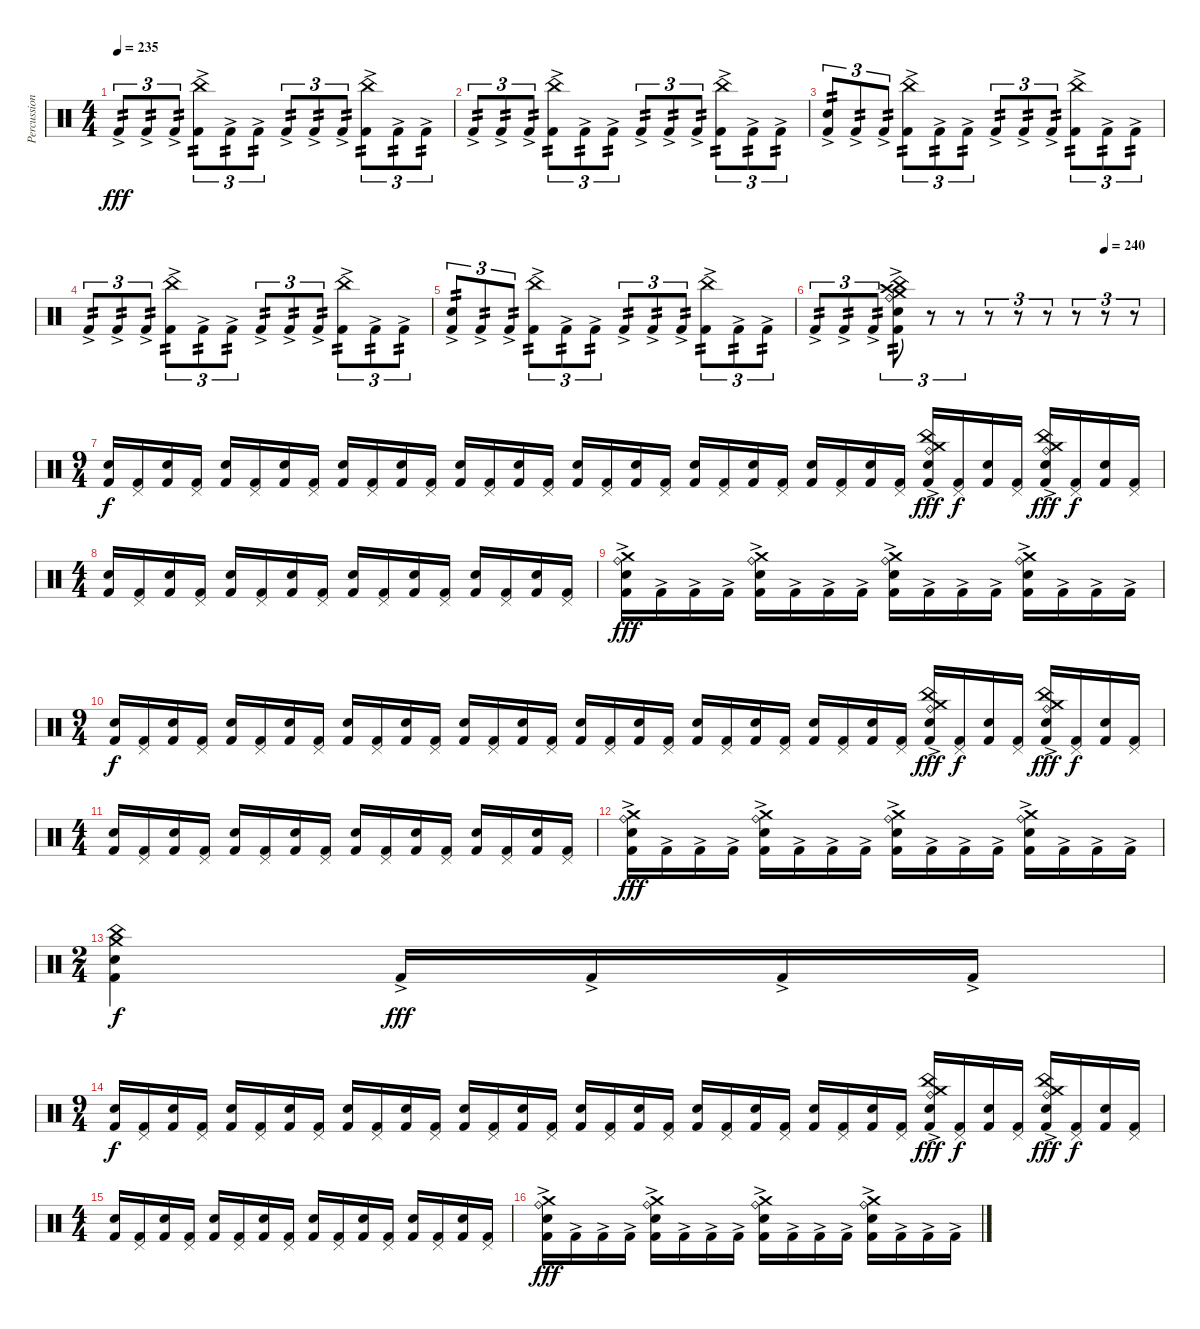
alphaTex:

\track ("Percussions" "Percussion") {instrument percussion}
\staff {score}
\articulation defaults
\ts (4 4)
\tempo 235
\clef neutral
\ks c "Kick (hit) 2"{ac}.8{tu (3 2) tp 2 dy fff} "Kick (hit) 2"{ac}.8{tu (3 2) tp 2} "Kick (hit) 2"{ac}.8{tu (3 2) tp 2}
("China (hit)"{ac} "Kick (hit) 2"{ac}).8{tu (3 2) tp 2} "Kick (hit) 2"{ac}.8{tu (3 2) tp 2} "Kick (hit) 2"{ac}.8{tu (3 2) tp 2} "Kick (hit) 2"{ac}.8{tu (3 2) tp 2} "Kick (hit) 2"{ac}.8{tu (3 2) tp 2} "Kick (hit) 2"{ac}.8{tu (3 2) tp 2} ("China (hit)"{ac} "Kick (hit) 2"{ac}).8{tu (3 2) tp 2} "Kick (hit) 2"{ac}.8{tu (3 2) tp 2} "Kick (hit) 2"{ac}.8{tu (3 2) tp 2} |
"Kick (hit) 2"{ac}.8{tu (3 2) tp 2} "Kick (hit) 2"{ac}.8{tu (3 2) tp 2} "Kick (hit) 2"{ac}.8{tu (3 2) tp 2} ("China (hit)"{ac} "Kick (hit) 2"{ac}).8{tu (3 2) tp 2} "Kick (hit) 2"{ac}.8{tu (3 2) tp 2} "Kick (hit) 2"{ac}.8{tu (3 2) tp 2} "Kick (hit) 2"{ac}.8{tu (3 2) tp 2} "Kick (hit) 2"{ac}.8{tu (3 2) tp 2} "Kick (hit) 2"{ac}.8{tu (3 2) tp 2} ("China (hit)"{ac} "Kick (hit) 2"{ac}).8{tu (3 2) tp 2} "Kick (hit) 2"{ac}.8{tu (3 2) tp 2} "Kick (hit) 2"{ac}.8{tu (3 2) tp 2} |
("Snare (hit) 2" "Kick (hit) 2"{ac}).8{tu (3 2) tp 2} "Kick (hit) 2"{ac}.8{tu (3 2) tp 2} "Kick (hit) 2"{ac}.8{tu (3 2) tp 2} ("China (hit)"{ac} "Kick (hit) 2"{ac}).8{tu (3 2) tp 2} "Kick (hit) 2"{ac}.8{tu (3 2) tp 2} "Kick (hit) 2"{ac}.8{tu (3 2) tp 2} "Kick (hit) 2"{ac}.8{tu (3 2) tp 2} "Kick (hit) 2"{ac}.8{tu (3 2) tp 2} "Kick (hit) 2"{ac}.8{tu (3 2) tp 2} ("China (hit)"{ac} "Kick (hit) 2"{ac}).8{tu (3 2) tp 2} "Kick (hit) 2"{ac}.8{tu (3 2) tp 2} "Kick (hit) 2"{ac}.8{tu (3 2) tp 2} |
"Kick (hit) 2"{ac}.8{tu (3 2) tp 2} "Kick (hit) 2"{ac}.8{tu (3 2) tp 2} "Kick (hit) 2"{ac}.8{tu (3 2) tp 2} ("China (hit)"{ac} "Kick (hit) 2"{ac}).8{tu (3 2) tp 2} "Kick (hit) 2"{ac}.8{tu (3 2) tp 2} "Kick (hit) 2"{ac}.8{tu (3 2) tp 2} "Kick (hit) 2"{ac}.8{tu (3 2) tp 2} "Kick (hit) 2"{ac}.8{tu (3 2) tp 2} "Kick (hit) 2"{ac}.8{tu (3 2) tp 2} ("China (hit)"{ac} "Kick (hit) 2"{ac}).8{tu (3 2) tp 2} "Kick (hit) 2"{ac}.8{tu (3 2) tp 2} "Kick (hit) 2"{ac}.8{tu (3 2) tp 2} |
("Snare (hit) 2" "Kick (hit) 2"{ac}).8{tu (3 2) tp 2} "Kick (hit) 2"{ac}.8{tu (3 2) tp 2} "Kick (hit) 2"{ac}.8{tu (3 2) tp 2} ("China (hit)"{ac} "Kick (hit) 2"{ac}).8{tu (3 2) tp 2} "Kick (hit) 2"{ac}.8{tu (3 2) tp 2} "Kick (hit) 2"{ac}.8{tu (3 2) tp 2} "Kick (hit) 2"{ac}.8{tu (3 2) tp 2} "Kick (hit) 2"{ac}.8{tu (3 2) tp 2} "Kick (hit) 2"{ac}.8{tu (3 2) tp 2} ("China (hit)"{ac} "Kick (hit) 2"{ac}).8{tu (3 2) tp 2} "Kick (hit) 2"{ac}.8{tu (3 2) tp 2} "Kick (hit) 2"{ac}.8{tu (3 2) tp 2} |
\tempo (240 0.8333333333333334)
"Kick (hit) 2"{ac}.8{tu (3 2) tp 2} "Kick (hit) 2"{ac}.8{tu (3 2) tp 2} "Kick (hit) 2"{ac}.8{tu (3 2) tp 2} ("Crash high (hit)" "Snare (hit) 2" "Crash medium (hit)" "Ride (bell)" "China (hit)"{ac} "Kick (hit) 2").8{tu (3 2) tp 2} r.8{tu (3 2)} r.8{tu (3 2)} r.8{tu (3 2)} r.8{tu (3 2)} r.8{tu (3 2)} r.8{tu (3 2)} r.8{tu (3 2)} r.8{tu (3 2)} |
\ts (9 4)
("Snare (hit) 2" "Kick (hit) 2").16{dy f} ("Pedal Hi-Hat (hit)" "Kick (hit) 2").16 ("Snare (hit) 2" "Kick (hit) 2").16 ("Pedal Hi-Hat (hit)" "Kick (hit) 2").16 ("Snare (hit) 2" "Kick (hit) 2").16 ("Pedal Hi-Hat (hit)" "Kick (hit) 2").16 ("Snare (hit) 2" "Kick (hit) 2").16 ("Pedal Hi-Hat (hit)" "Kick (hit) 2").16 ("Snare (hit) 2" "Kick (hit) 2").16 ("Pedal Hi-Hat (hit)" "Kick (hit) 2").16 ("Snare (hit) 2" "Kick (hit) 2").16 ("Pedal Hi-Hat (hit)" "Kick (hit) 2").16 ("Snare (hit) 2" "Kick (hit) 2").16 ("Pedal Hi-Hat (hit)" "Kick (hit) 2").16 ("Snare (hit) 2" "Kick (hit) 2").16 ("Pedal Hi-Hat (hit)" "Kick (hit) 2").16 ("Snare (hit) 2" "Kick (hit) 2").16 ("Pedal Hi-Hat (hit)" "Kick (hit) 2").16 ("Snare (hit) 2" "Kick (hit) 2").16 ("Pedal Hi-Hat (hit)" "Kick (hit) 2").16 ("Snare (hit) 2" "Kick (hit) 2").16 ("Pedal Hi-Hat (hit)" "Kick (hit) 2").16 ("Snare (hit) 2" "Kick (hit) 2").16 ("Pedal Hi-Hat (hit)" "Kick (hit) 2").16 ("Snare (hit) 2" "Kick (hit) 2").16 ("Pedal Hi-Hat (hit)" "Kick (hit) 2").16 ("Snare (hit) 2" "Kick (hit) 2").16 ("Pedal Hi-Hat (hit)" "Kick (hit) 2").16 ("Ride (bell)"{ac} "Crash medium (hit)" "China (hit)" "Snare (hit) 2" "Kick (hit) 2").16{dy fff} ("Pedal Hi-Hat (hit)" "Kick (hit) 2").16{dy f} ("Snare (hit) 2" "Kick (hit) 2").16 ("Pedal Hi-Hat (hit)" "Kick (hit) 2").16 ("Ride (bell)"{ac} "Crash medium (hit)" "China (hit)" "Snare (hit) 2" "Kick (hit) 2").16{dy fff} ("Pedal Hi-Hat (hit)" "Kick (hit) 2").16{dy f} ("Snare (hit) 2" "Kick (hit) 2").16 ("Pedal Hi-Hat (hit)" "Kick (hit) 2").16 |
\ts (4 4)
("Snare (hit) 2" "Kick (hit) 2").16 ("Pedal Hi-Hat (hit)" "Kick (hit) 2").16 ("Snare (hit) 2" "Kick (hit) 2").16 ("Pedal Hi-Hat (hit)" "Kick (hit) 2").16 ("Snare (hit) 2" "Kick (hit) 2").16 ("Pedal Hi-Hat (hit)" "Kick (hit) 2").16 ("Snare (hit) 2" "Kick (hit) 2").16 ("Pedal Hi-Hat (hit)" "Kick (hit) 2").16 ("Snare (hit) 2" "Kick (hit) 2").16 ("Pedal Hi-Hat (hit)" "Kick (hit) 2").16 ("Snare (hit) 2" "Kick (hit) 2").16 ("Pedal Hi-Hat (hit)" "Kick (hit) 2").16 ("Snare (hit) 2" "Kick (hit) 2").16 ("Pedal Hi-Hat (hit)" "Kick (hit) 2").16 ("Snare (hit) 2" "Kick (hit) 2").16 ("Pedal Hi-Hat (hit)" "Kick (hit) 2").16 |
("Snare (hit) 2" "Crash medium (hit)" "Ride (bell)" "Kick (hit) 2"{ac}).16{dy fff} "Kick (hit) 2"{ac}.16 "Kick (hit) 2"{ac}.16 "Kick (hit) 2"{ac}.16 ("Snare (hit) 2" "Crash medium (hit)" "Ride (bell)" "Kick (hit) 2"{ac}).16 "Kick (hit) 2"{ac}.16 "Kick (hit) 2"{ac}.16 "Kick (hit) 2"{ac}.16 ("Snare (hit) 2" "Crash medium (hit)" "Ride (bell)" "Kick (hit) 2"{ac}).16 "Kick (hit) 2"{ac}.16 "Kick (hit) 2"{ac}.16 "Kick (hit) 2"{ac}.16 ("Snare (hit) 2" "Crash medium (hit)" "Ride (bell)" "Kick (hit) 2"{ac}).16 "Kick (hit) 2"{ac}.16 "Kick (hit) 2"{ac}.16 "Kick (hit) 2"{ac}.16 |
\ts (9 4)
("Snare (hit) 2" "Kick (hit) 2").16{dy f} ("Pedal Hi-Hat (hit)" "Kick (hit) 2").16 ("Snare (hit) 2" "Kick (hit) 2").16 ("Pedal Hi-Hat (hit)" "Kick (hit) 2").16 ("Snare (hit) 2" "Kick (hit) 2").16 ("Pedal Hi-Hat (hit)" "Kick (hit) 2").16 ("Snare (hit) 2" "Kick (hit) 2").16 ("Pedal Hi-Hat (hit)" "Kick (hit) 2").16 ("Snare (hit) 2" "Kick (hit) 2").16 ("Pedal Hi-Hat (hit)" "Kick (hit) 2").16 ("Snare (hit) 2" "Kick (hit) 2").16 ("Pedal Hi-Hat (hit)" "Kick (hit) 2").16 ("Snare (hit) 2" "Kick (hit) 2").16 ("Pedal Hi-Hat (hit)" "Kick (hit) 2").16 ("Snare (hit) 2" "Kick (hit) 2").16 ("Pedal Hi-Hat (hit)" "Kick (hit) 2").16 ("Snare (hit) 2" "Kick (hit) 2").16 ("Pedal Hi-Hat (hit)" "Kick (hit) 2").16 ("Snare (hit) 2" "Kick (hit) 2").16 ("Pedal Hi-Hat (hit)" "Kick (hit) 2").16 ("Snare (hit) 2" "Kick (hit) 2").16 ("Pedal Hi-Hat (hit)" "Kick (hit) 2").16 ("Snare (hit) 2" "Kick (hit) 2").16 ("Pedal Hi-Hat (hit)" "Kick (hit) 2").16 ("Snare (hit) 2" "Kick (hit) 2").16 ("Pedal Hi-Hat (hit)" "Kick (hit) 2").16 ("Snare (hit) 2" "Kick (hit) 2").16 ("Pedal Hi-Hat (hit)" "Kick (hit) 2").16 ("Ride (bell)"{ac} "Crash medium (hit)" "China (hit)" "Snare (hit) 2" "Kick (hit) 2").16{dy fff} ("Pedal Hi-Hat (hit)" "Kick (hit) 2").16{dy f} ("Snare (hit) 2" "Kick (hit) 2").16 ("Pedal Hi-Hat (hit)" "Kick (hit) 2").16 ("Ride (bell)"{ac} "Crash medium (hit)" "China (hit)" "Snare (hit) 2" "Kick (hit) 2").16{dy fff} ("Pedal Hi-Hat (hit)" "Kick (hit) 2").16{dy f} ("Snare (hit) 2" "Kick (hit) 2").16 ("Pedal Hi-Hat (hit)" "Kick (hit) 2").16 |
\ts (4 4)
("Snare (hit) 2" "Kick (hit) 2").16 ("Pedal Hi-Hat (hit)" "Kick (hit) 2").16 ("Snare (hit) 2" "Kick (hit) 2").16 ("Pedal Hi-Hat (hit)" "Kick (hit) 2").16 ("Snare (hit) 2" "Kick (hit) 2").16 ("Pedal Hi-Hat (hit)" "Kick (hit) 2").16 ("Snare (hit) 2" "Kick (hit) 2").16 ("Pedal Hi-Hat (hit)" "Kick (hit) 2").16 ("Snare (hit) 2" "Kick (hit) 2").16 ("Pedal Hi-Hat (hit)" "Kick (hit) 2").16 ("Snare (hit) 2" "Kick (hit) 2").16 ("Pedal Hi-Hat (hit)" "Kick (hit) 2").16 ("Snare (hit) 2" "Kick (hit) 2").16 ("Pedal Hi-Hat (hit)" "Kick (hit) 2").16 ("Snare (hit) 2" "Kick (hit) 2").16 ("Pedal Hi-Hat (hit)" "Kick (hit) 2").16 |
("Snare (hit) 2" "Crash medium (hit)" "Ride (bell)" "Kick (hit) 2"{ac}).16{dy fff} "Kick (hit) 2"{ac}.16 "Kick (hit) 2"{ac}.16 "Kick (hit) 2"{ac}.16 ("Snare (hit) 2" "Crash medium (hit)" "Ride (bell)" "Kick (hit) 2"{ac}).16 "Kick (hit) 2"{ac}.16 "Kick (hit) 2"{ac}.16 "Kick (hit) 2"{ac}.16 ("Snare (hit) 2" "Crash medium (hit)" "Ride (bell)" "Kick (hit) 2"{ac}).16 "Kick (hit) 2"{ac}.16 "Kick (hit) 2"{ac}.16 "Kick (hit) 2"{ac}.16 ("Snare (hit) 2" "Crash medium (hit)" "Ride (bell)" "Kick (hit) 2"{ac}).16 "Kick (hit) 2"{ac}.16 "Kick (hit) 2"{ac}.16 "Kick (hit) 2"{ac}.16 |
\ts (2 4)
("China (hit)" "Crash medium (hit)" "Snare (hit) 2" "Kick (hit) 2").4{dy f} "Kick (hit) 2"{ac}.16{dy fff} "Kick (hit) 2"{ac}.16 "Kick (hit) 2"{ac}.16 "Kick (hit) 2"{ac}.16 |
\ts (9 4)
("Snare (hit) 2" "Kick (hit) 2").16{dy f} ("Pedal Hi-Hat (hit)" "Kick (hit) 2").16 ("Snare (hit) 2" "Kick (hit) 2").16 ("Pedal Hi-Hat (hit)" "Kick (hit) 2").16 ("Snare (hit) 2" "Kick (hit) 2").16 ("Pedal Hi-Hat (hit)" "Kick (hit) 2").16 ("Snare (hit) 2" "Kick (hit) 2").16 ("Pedal Hi-Hat (hit)" "Kick (hit) 2").16 ("Snare (hit) 2" "Kick (hit) 2").16 ("Pedal Hi-Hat (hit)" "Kick (hit) 2").16 ("Snare (hit) 2" "Kick (hit) 2").16 ("Pedal Hi-Hat (hit)" "Kick (hit) 2").16 ("Snare (hit) 2" "Kick (hit) 2").16 ("Pedal Hi-Hat (hit)" "Kick (hit) 2").16 ("Snare (hit) 2" "Kick (hit) 2").16 ("Pedal Hi-Hat (hit)" "Kick (hit) 2").16 ("Snare (hit) 2" "Kick (hit) 2").16 ("Pedal Hi-Hat (hit)" "Kick (hit) 2").16 ("Snare (hit) 2" "Kick (hit) 2").16 ("Pedal Hi-Hat (hit)" "Kick (hit) 2").16 ("Snare (hit) 2" "Kick (hit) 2").16 ("Pedal Hi-Hat (hit)" "Kick (hit) 2").16 ("Snare (hit) 2" "Kick (hit) 2").16 ("Pedal Hi-Hat (hit)" "Kick (hit) 2").16 ("Snare (hit) 2" "Kick (hit) 2").16 ("Pedal Hi-Hat (hit)" "Kick (hit) 2").16 ("Snare (hit) 2" "Kick (hit) 2").16 ("Pedal Hi-Hat (hit)" "Kick (hit) 2").16 ("Ride (bell)"{ac} "Crash medium (hit)" "China (hit)" "Snare (hit) 2" "Kick (hit) 2").16{dy fff} ("Pedal Hi-Hat (hit)" "Kick (hit) 2").16{dy f} ("Snare (hit) 2" "Kick (hit) 2").16 ("Pedal Hi-Hat (hit)" "Kick (hit) 2").16 ("Ride (bell)"{ac} "Crash medium (hit)" "China (hit)" "Snare (hit) 2" "Kick (hit) 2").16{dy fff} ("Pedal Hi-Hat (hit)" "Kick (hit) 2").16{dy f} ("Snare (hit) 2" "Kick (hit) 2").16 ("Pedal Hi-Hat (hit)" "Kick (hit) 2").16 |
\ts (4 4)
("Snare (hit) 2" "Kick (hit) 2").16 ("Pedal Hi-Hat (hit)" "Kick (hit) 2").16 ("Snare (hit) 2" "Kick (hit) 2").16 ("Pedal Hi-Hat (hit)" "Kick (hit) 2").16 ("Snare (hit) 2" "Kick (hit) 2").16 ("Pedal Hi-Hat (hit)" "Kick (hit) 2").16 ("Snare (hit) 2" "Kick (hit) 2").16 ("Pedal Hi-Hat (hit)" "Kick (hit) 2").16 ("Snare (hit) 2" "Kick (hit) 2").16 ("Pedal Hi-Hat (hit)" "Kick (hit) 2").16 ("Snare (hit) 2" "Kick (hit) 2").16 ("Pedal Hi-Hat (hit)" "Kick (hit) 2").16 ("Snare (hit) 2" "Kick (hit) 2").16 ("Pedal Hi-Hat (hit)" "Kick (hit) 2").16 ("Snare (hit) 2" "Kick (hit) 2").16 ("Pedal Hi-Hat (hit)" "Kick (hit) 2").16 |
("Snare (hit) 2" "Crash medium (hit)" "Ride (bell)" "Kick (hit) 2"{ac}).16{dy fff} "Kick (hit) 2"{ac}.16 "Kick (hit) 2"{ac}.16 "Kick (hit) 2"{ac}.16 ("Snare (hit) 2" "Crash medium (hit)" "Ride (bell)" "Kick (hit) 2"{ac}).16 "Kick (hit) 2"{ac}.16 "Kick (hit) 2"{ac}.16 "Kick (hit) 2"{ac}.16 ("Snare (hit) 2" "Crash medium (hit)" "Ride (bell)" "Kick (hit) 2"{ac}).16 "Kick (hit) 2"{ac}.16 "Kick (hit) 2"{ac}.16 "Kick (hit) 2"{ac}.16 ("Snare (hit) 2" "Crash medium (hit)" "Ride (bell)" "Kick (hit) 2"{ac}).16 "Kick (hit) 2"{ac}.16 "Kick (hit) 2"{ac}.16 "Kick (hit) 2"{ac}.16
